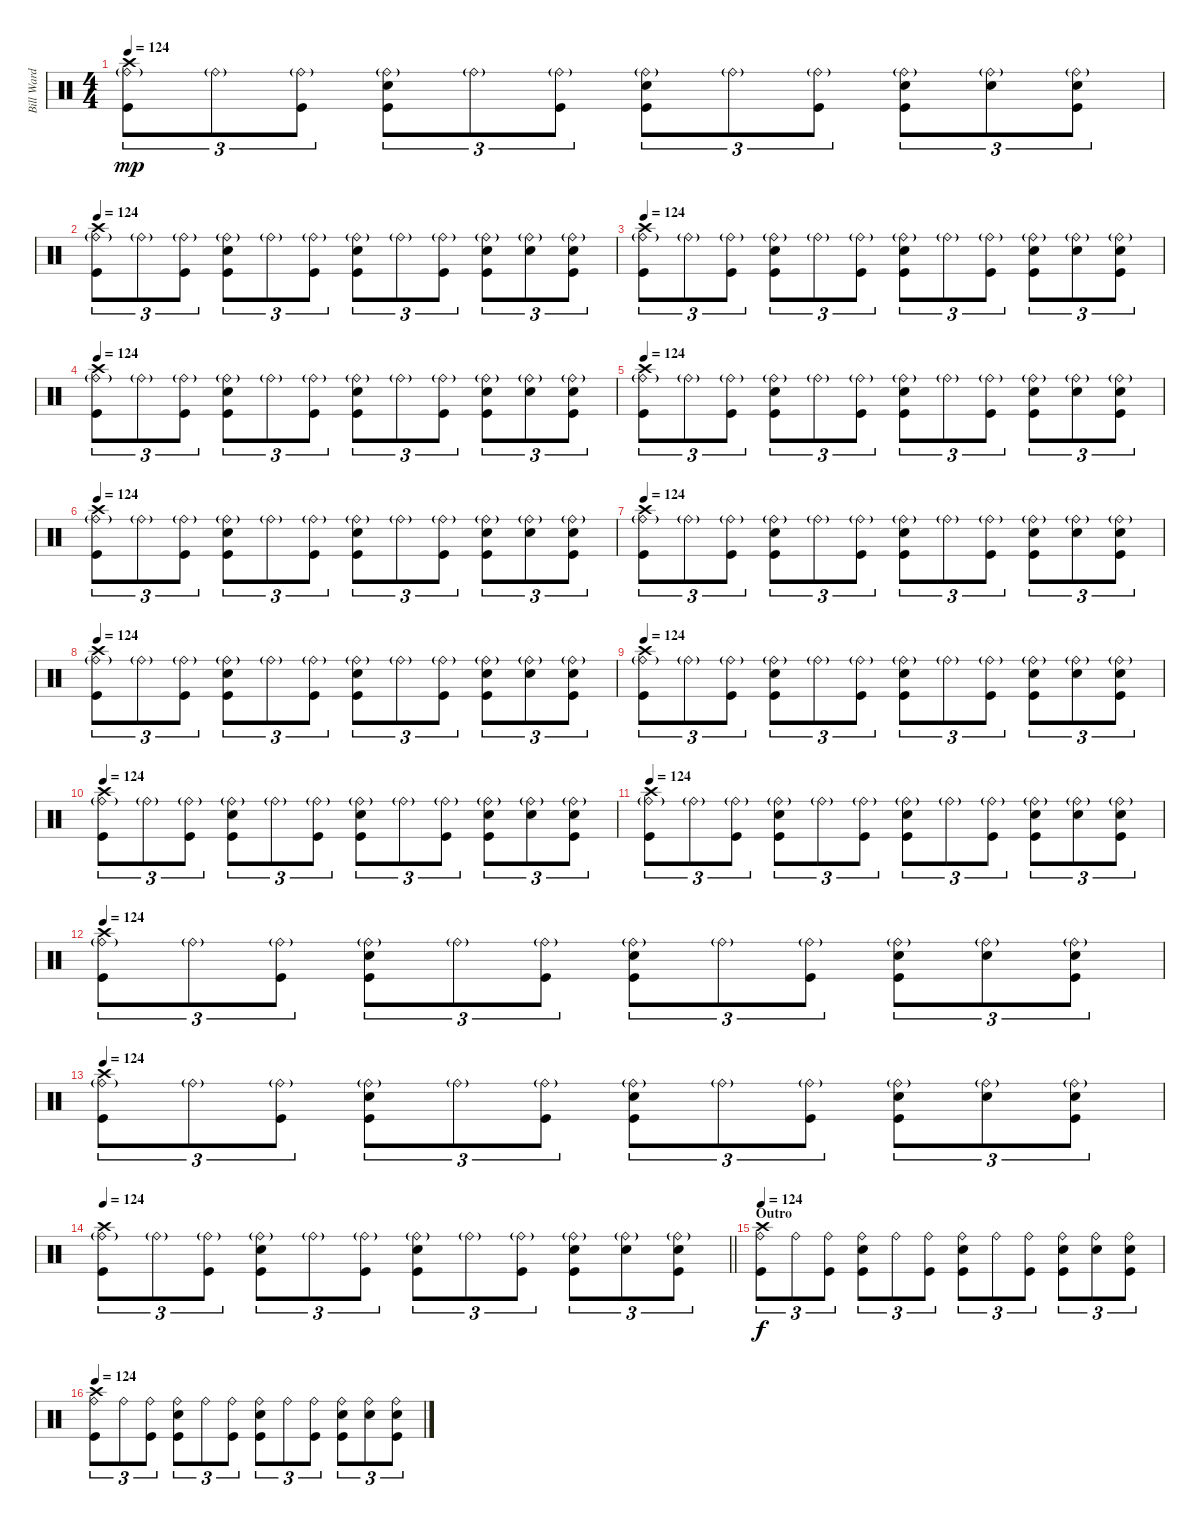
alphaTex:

\track ("Bill Ward" "Bill Ward") {instrument percussion}
\staff {score}
\articulation defaults
\ts (4 4)
\tempo 124
\clef neutral
\ks c
("Crash high (hit)" "Ride (bell)"{g} "Kick (hit)").8{tu (3 2) dy mp} "Ride (bell)"{g}.8{tu (3 2)} ("Ride (bell)"{g} "Kick (hit)").8{tu (3 2)} ("Ride (bell)"{g} "Snare (hit) 2" "Kick (hit)").8{tu (3 2)} "Ride (bell)"{g}.8{tu (3 2)} ("Ride (bell)"{g} "Kick (hit)").8{tu (3 2)} ("Ride (bell)"{g} "Snare (hit) 2" "Kick (hit)").8{tu (3 2)} "Ride (bell)"{g}.8{tu (3 2)} ("Ride (bell)"{g} "Kick (hit)").8{tu (3 2)} ("Ride (bell)"{g} "Snare (hit) 2" "Kick (hit)").8{tu (3 2)} ("Ride (bell)"{g} "Snare (hit) 2").8{tu (3 2)} ("Ride (bell)"{g} "Snare (hit) 2" "Kick (hit)").8{tu (3 2)} |
\tempo 124
("Crash high (hit)" "Ride (bell)"{g} "Kick (hit)").8{tu (3 2)} "Ride (bell)"{g}.8{tu (3 2)} ("Ride (bell)"{g} "Kick (hit)").8{tu (3 2)} ("Ride (bell)"{g} "Snare (hit) 2" "Kick (hit)").8{tu (3 2)} "Ride (bell)"{g}.8{tu (3 2)} ("Ride (bell)"{g} "Kick (hit)").8{tu (3 2)} ("Ride (bell)"{g} "Snare (hit) 2" "Kick (hit)").8{tu (3 2)} "Ride (bell)"{g}.8{tu (3 2)} ("Ride (bell)"{g} "Kick (hit)").8{tu (3 2)} ("Ride (bell)"{g} "Snare (hit) 2" "Kick (hit)").8{tu (3 2)} ("Ride (bell)"{g} "Snare (hit) 2").8{tu (3 2)} ("Ride (bell)"{g} "Snare (hit) 2" "Kick (hit)").8{tu (3 2)} |
\tempo 124
("Crash high (hit)" "Ride (bell)"{g} "Kick (hit)").8{tu (3 2)} "Ride (bell)"{g}.8{tu (3 2)} ("Ride (bell)"{g} "Kick (hit)").8{tu (3 2)} ("Ride (bell)"{g} "Snare (hit) 2" "Kick (hit)").8{tu (3 2)} "Ride (bell)"{g}.8{tu (3 2)} ("Ride (bell)"{g} "Kick (hit)").8{tu (3 2)} ("Ride (bell)"{g} "Snare (hit) 2" "Kick (hit)").8{tu (3 2)} "Ride (bell)"{g}.8{tu (3 2)} ("Ride (bell)"{g} "Kick (hit)").8{tu (3 2)} ("Ride (bell)"{g} "Snare (hit) 2" "Kick (hit)").8{tu (3 2)} ("Ride (bell)"{g} "Snare (hit) 2").8{tu (3 2)} ("Ride (bell)"{g} "Snare (hit) 2" "Kick (hit)").8{tu (3 2)} |
\tempo 124
("Crash high (hit)" "Ride (bell)"{g} "Kick (hit)").8{tu (3 2)} "Ride (bell)"{g}.8{tu (3 2)} ("Ride (bell)"{g} "Kick (hit)").8{tu (3 2)} ("Ride (bell)"{g} "Snare (hit) 2" "Kick (hit)").8{tu (3 2)} "Ride (bell)"{g}.8{tu (3 2)} ("Ride (bell)"{g} "Kick (hit)").8{tu (3 2)} ("Ride (bell)"{g} "Snare (hit) 2" "Kick (hit)").8{tu (3 2)} "Ride (bell)"{g}.8{tu (3 2)} ("Ride (bell)"{g} "Kick (hit)").8{tu (3 2)} ("Ride (bell)"{g} "Snare (hit) 2" "Kick (hit)").8{tu (3 2)} ("Ride (bell)"{g} "Snare (hit) 2").8{tu (3 2)} ("Ride (bell)"{g} "Snare (hit) 2" "Kick (hit)").8{tu (3 2)} |
\tempo 124
("Crash high (hit)" "Ride (bell)"{g} "Kick (hit)").8{tu (3 2)} "Ride (bell)"{g}.8{tu (3 2)} ("Ride (bell)"{g} "Kick (hit)").8{tu (3 2)} ("Ride (bell)"{g} "Snare (hit) 2" "Kick (hit)").8{tu (3 2)} "Ride (bell)"{g}.8{tu (3 2)} ("Ride (bell)"{g} "Kick (hit)").8{tu (3 2)} ("Ride (bell)"{g} "Snare (hit) 2" "Kick (hit)").8{tu (3 2)} "Ride (bell)"{g}.8{tu (3 2)} ("Ride (bell)"{g} "Kick (hit)").8{tu (3 2)} ("Ride (bell)"{g} "Snare (hit) 2" "Kick (hit)").8{tu (3 2)} ("Ride (bell)"{g} "Snare (hit) 2").8{tu (3 2)} ("Ride (bell)"{g} "Snare (hit) 2" "Kick (hit)").8{tu (3 2)} |
\tempo 124
("Crash high (hit)" "Ride (bell)"{g} "Kick (hit)").8{tu (3 2)} "Ride (bell)"{g}.8{tu (3 2)} ("Ride (bell)"{g} "Kick (hit)").8{tu (3 2)} ("Ride (bell)"{g} "Snare (hit) 2" "Kick (hit)").8{tu (3 2)} "Ride (bell)"{g}.8{tu (3 2)} ("Ride (bell)"{g} "Kick (hit)").8{tu (3 2)} ("Ride (bell)"{g} "Snare (hit) 2" "Kick (hit)").8{tu (3 2)} "Ride (bell)"{g}.8{tu (3 2)} ("Ride (bell)"{g} "Kick (hit)").8{tu (3 2)} ("Ride (bell)"{g} "Snare (hit) 2" "Kick (hit)").8{tu (3 2)} ("Ride (bell)"{g} "Snare (hit) 2").8{tu (3 2)} ("Ride (bell)"{g} "Snare (hit) 2" "Kick (hit)").8{tu (3 2)} |
\tempo 124
("Crash high (hit)" "Ride (bell)"{g} "Kick (hit)").8{tu (3 2)} "Ride (bell)"{g}.8{tu (3 2)} ("Ride (bell)"{g} "Kick (hit)").8{tu (3 2)} ("Ride (bell)"{g} "Snare (hit) 2" "Kick (hit)").8{tu (3 2)} "Ride (bell)"{g}.8{tu (3 2)} ("Ride (bell)"{g} "Kick (hit)").8{tu (3 2)} ("Ride (bell)"{g} "Snare (hit) 2" "Kick (hit)").8{tu (3 2)} "Ride (bell)"{g}.8{tu (3 2)} ("Ride (bell)"{g} "Kick (hit)").8{tu (3 2)} ("Ride (bell)"{g} "Snare (hit) 2" "Kick (hit)").8{tu (3 2)} ("Ride (bell)"{g} "Snare (hit) 2").8{tu (3 2)} ("Ride (bell)"{g} "Snare (hit) 2" "Kick (hit)").8{tu (3 2)} |
\tempo 124
("Crash high (hit)" "Ride (bell)"{g} "Kick (hit)").8{tu (3 2)} "Ride (bell)"{g}.8{tu (3 2)} ("Ride (bell)"{g} "Kick (hit)").8{tu (3 2)} ("Ride (bell)"{g} "Snare (hit) 2" "Kick (hit)").8{tu (3 2)} "Ride (bell)"{g}.8{tu (3 2)} ("Ride (bell)"{g} "Kick (hit)").8{tu (3 2)} ("Ride (bell)"{g} "Snare (hit) 2" "Kick (hit)").8{tu (3 2)} "Ride (bell)"{g}.8{tu (3 2)} ("Ride (bell)"{g} "Kick (hit)").8{tu (3 2)} ("Ride (bell)"{g} "Snare (hit) 2" "Kick (hit)").8{tu (3 2)} ("Ride (bell)"{g} "Snare (hit) 2").8{tu (3 2)} ("Ride (bell)"{g} "Snare (hit) 2" "Kick (hit)").8{tu (3 2)} |
\tempo 124
("Crash high (hit)" "Ride (bell)"{g} "Kick (hit)").8{tu (3 2)} "Ride (bell)"{g}.8{tu (3 2)} ("Ride (bell)"{g} "Kick (hit)").8{tu (3 2)} ("Ride (bell)"{g} "Snare (hit) 2" "Kick (hit)").8{tu (3 2)} "Ride (bell)"{g}.8{tu (3 2)} ("Ride (bell)"{g} "Kick (hit)").8{tu (3 2)} ("Ride (bell)"{g} "Snare (hit) 2" "Kick (hit)").8{tu (3 2)} "Ride (bell)"{g}.8{tu (3 2)} ("Ride (bell)"{g} "Kick (hit)").8{tu (3 2)} ("Ride (bell)"{g} "Snare (hit) 2" "Kick (hit)").8{tu (3 2)} ("Ride (bell)"{g} "Snare (hit) 2").8{tu (3 2)} ("Ride (bell)"{g} "Snare (hit) 2" "Kick (hit)").8{tu (3 2)} |
\tempo 124
("Crash high (hit)" "Ride (bell)"{g} "Kick (hit)").8{tu (3 2)} "Ride (bell)"{g}.8{tu (3 2)} ("Ride (bell)"{g} "Kick (hit)").8{tu (3 2)} ("Ride (bell)"{g} "Snare (hit) 2" "Kick (hit)").8{tu (3 2)} "Ride (bell)"{g}.8{tu (3 2)} ("Ride (bell)"{g} "Kick (hit)").8{tu (3 2)} ("Ride (bell)"{g} "Snare (hit) 2" "Kick (hit)").8{tu (3 2)} "Ride (bell)"{g}.8{tu (3 2)} ("Ride (bell)"{g} "Kick (hit)").8{tu (3 2)} ("Ride (bell)"{g} "Snare (hit) 2" "Kick (hit)").8{tu (3 2)} ("Ride (bell)"{g} "Snare (hit) 2").8{tu (3 2)} ("Ride (bell)"{g} "Snare (hit) 2" "Kick (hit)").8{tu (3 2)} |
\tempo 124
("Crash high (hit)" "Ride (bell)"{g} "Kick (hit)").8{tu (3 2)} "Ride (bell)"{g}.8{tu (3 2)} ("Ride (bell)"{g} "Kick (hit)").8{tu (3 2)} ("Ride (bell)"{g} "Snare (hit) 2" "Kick (hit)").8{tu (3 2)} "Ride (bell)"{g}.8{tu (3 2)} ("Ride (bell)"{g} "Kick (hit)").8{tu (3 2)} ("Ride (bell)"{g} "Snare (hit) 2" "Kick (hit)").8{tu (3 2)} "Ride (bell)"{g}.8{tu (3 2)} ("Ride (bell)"{g} "Kick (hit)").8{tu (3 2)} ("Ride (bell)"{g} "Snare (hit) 2" "Kick (hit)").8{tu (3 2)} ("Ride (bell)"{g} "Snare (hit) 2").8{tu (3 2)} ("Ride (bell)"{g} "Snare (hit) 2" "Kick (hit)").8{tu (3 2)} |
\tempo 124
("Crash high (hit)" "Ride (bell)"{g} "Kick (hit)").8{tu (3 2)} "Ride (bell)"{g}.8{tu (3 2)} ("Ride (bell)"{g} "Kick (hit)").8{tu (3 2)} ("Ride (bell)"{g} "Snare (hit) 2" "Kick (hit)").8{tu (3 2)} "Ride (bell)"{g}.8{tu (3 2)} ("Ride (bell)"{g} "Kick (hit)").8{tu (3 2)} ("Ride (bell)"{g} "Snare (hit) 2" "Kick (hit)").8{tu (3 2)} "Ride (bell)"{g}.8{tu (3 2)} ("Ride (bell)"{g} "Kick (hit)").8{tu (3 2)} ("Ride (bell)"{g} "Snare (hit) 2" "Kick (hit)").8{tu (3 2)} ("Ride (bell)"{g} "Snare (hit) 2").8{tu (3 2)} ("Ride (bell)"{g} "Snare (hit) 2" "Kick (hit)").8{tu (3 2)} |
\tempo 124
("Crash high (hit)" "Ride (bell)"{g} "Kick (hit)").8{tu (3 2)} "Ride (bell)"{g}.8{tu (3 2)} ("Ride (bell)"{g} "Kick (hit)").8{tu (3 2)} ("Ride (bell)"{g} "Snare (hit) 2" "Kick (hit)").8{tu (3 2)} "Ride (bell)"{g}.8{tu (3 2)} ("Ride (bell)"{g} "Kick (hit)").8{tu (3 2)} ("Ride (bell)"{g} "Snare (hit) 2" "Kick (hit)").8{tu (3 2)} "Ride (bell)"{g}.8{tu (3 2)} ("Ride (bell)"{g} "Kick (hit)").8{tu (3 2)} ("Ride (bell)"{g} "Snare (hit) 2" "Kick (hit)").8{tu (3 2)} ("Ride (bell)"{g} "Snare (hit) 2").8{tu (3 2)} ("Ride (bell)"{g} "Snare (hit) 2" "Kick (hit)").8{tu (3 2)} |
\tempo 124
\barLineRight lightlight
("Crash high (hit)" "Ride (bell)"{g} "Kick (hit)").8{tu (3 2)} "Ride (bell)"{g}.8{tu (3 2)} ("Ride (bell)"{g} "Kick (hit)").8{tu (3 2)} ("Ride (bell)"{g} "Snare (hit) 2" "Kick (hit)").8{tu (3 2)} "Ride (bell)"{g}.8{tu (3 2)} ("Ride (bell)"{g} "Kick (hit)").8{tu (3 2)} ("Ride (bell)"{g} "Snare (hit) 2" "Kick (hit)").8{tu (3 2)} "Ride (bell)"{g}.8{tu (3 2)} ("Ride (bell)"{g} "Kick (hit)").8{tu (3 2)} ("Ride (bell)"{g} "Snare (hit) 2" "Kick (hit)").8{tu (3 2)} ("Ride (bell)"{g} "Snare (hit) 2").8{tu (3 2)} ("Ride (bell)"{g} "Snare (hit) 2" "Kick (hit)").8{tu (3 2)} |
\section ("" "Outro")
\tempo 124
("Crash high (hit)" "Ride (bell)" "Kick (hit)").8{tu (3 2) dy f} "Ride (bell)".8{tu (3 2)} ("Ride (bell)" "Kick (hit)").8{tu (3 2)} ("Ride (bell)" "Snare (hit) 2" "Kick (hit)").8{tu (3 2)} "Ride (bell)".8{tu (3 2)} ("Ride (bell)" "Kick (hit)").8{tu (3 2)} ("Ride (bell)" "Snare (hit) 2" "Kick (hit)").8{tu (3 2)} "Ride (bell)".8{tu (3 2)} ("Ride (bell)" "Kick (hit)").8{tu (3 2)} ("Ride (bell)" "Snare (hit) 2" "Kick (hit)").8{tu (3 2)} ("Ride (bell)" "Snare (hit) 2").8{tu (3 2)} ("Ride (bell)" "Snare (hit) 2" "Kick (hit)").8{tu (3 2)} |
\tempo 124
("Crash high (hit)" "Ride (bell)" "Kick (hit)").8{tu (3 2)} "Ride (bell)".8{tu (3 2)} ("Ride (bell)" "Kick (hit)").8{tu (3 2)} ("Ride (bell)" "Snare (hit) 2" "Kick (hit)").8{tu (3 2)} "Ride (bell)".8{tu (3 2)} ("Ride (bell)" "Kick (hit)").8{tu (3 2)} ("Ride (bell)" "Snare (hit) 2" "Kick (hit)").8{tu (3 2)} "Ride (bell)".8{tu (3 2)} ("Ride (bell)" "Kick (hit)").8{tu (3 2)} ("Ride (bell)" "Snare (hit) 2" "Kick (hit)").8{tu (3 2)} ("Ride (bell)" "Snare (hit) 2").8{tu (3 2)} ("Ride (bell)" "Snare (hit) 2" "Kick (hit)").8{tu (3 2)}
